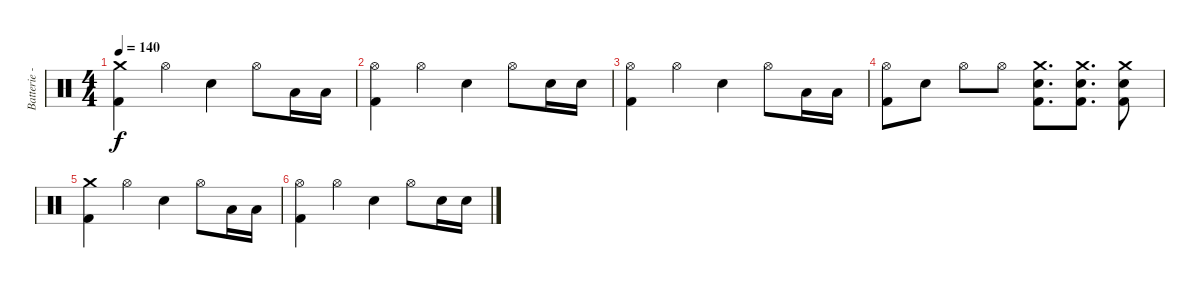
\track ("Batterie - Anders Johansson" "Batterie -") {instrument percussion}
\staff {score}
\articulation defaults
\ts (4 4)
\tempo 140
\clef neutral
\ks c
("Crash medium (hit)" "Kick (hit) 2").4{dy f} "Hi-Hat (open)".4 "Electric Snare (hit)".4 "Hi-Hat (open)".8 "Low Tom (hit)".16 "Low Tom (hit)".16 |
("Hi-Hat (open)" "Kick (hit) 2").4 "Hi-Hat (open)".4 "Electric Snare (hit)".4 "Hi-Hat (open)".8 "Electric Snare (hit)".16 "Electric Snare (hit)".16 |
("Hi-Hat (open)" "Kick (hit) 2").4 "Hi-Hat (open)".4 "Electric Snare (hit)".4 "Hi-Hat (open)".8 "Low Tom (hit)".16 "Low Tom (hit)".16 |
("Hi-Hat (open)" "Kick (hit) 2").8 "Electric Snare (hit)".8 "Hi-Hat (open)".8 "Hi-Hat (open)".8 ("Crash medium (hit)" "Electric Snare (hit)" "Kick (hit) 2").8{d} ("Crash medium (hit)" "Electric Snare (hit)" "Kick (hit) 2").8{d} ("Crash medium (hit)" "Electric Snare (hit)" "Kick (hit) 2").8 |
("Crash medium (hit)" "Kick (hit) 2").4 "Hi-Hat (open)".4 "Electric Snare (hit)".4 "Hi-Hat (open)".8 "Low Tom (hit)".16 "Low Tom (hit)".16 |
("Hi-Hat (open)" "Kick (hit) 2").4 "Hi-Hat (open)".4 "Electric Snare (hit)".4 "Hi-Hat (open)".8 "Electric Snare (hit)".16 "Electric Snare (hit)".16
